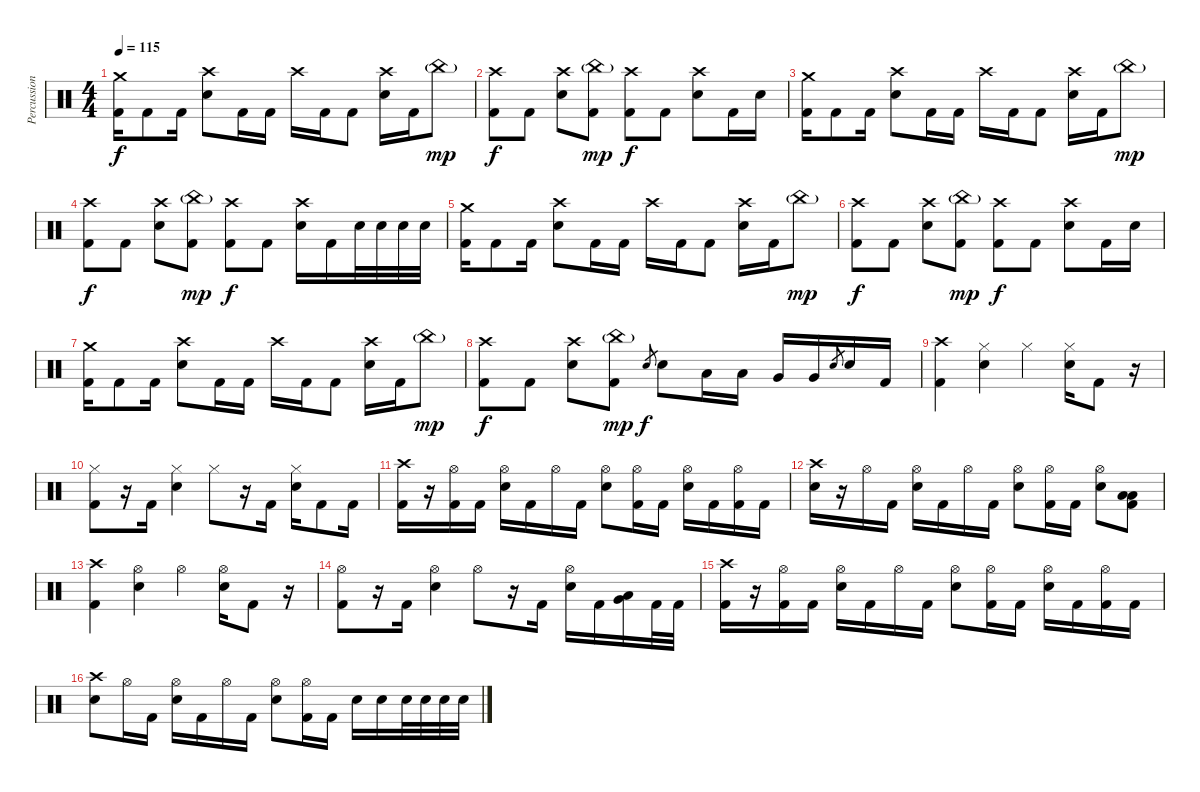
\track ("Percussions" "Percussion") {instrument percussion}
\staff {score}
\articulation defaults
\ts (4 4)
\tempo 115
\clef neutral
\ks c
("Crash medium (hit)" "Kick (hit) 2").16{dy f} "Kick (hit) 2".8 "Kick (hit) 2".16 ("Crash high (hit)" "Electric Snare (hit)").8 "Kick (hit) 2".16 "Kick (hit) 2".16 "Crash high (hit)".16 "Kick (hit) 2".16 "Kick (hit) 2".8 ("Crash high (hit)" "Electric Snare (hit)").16 "Kick (hit) 2".16 "China (hit)"{g}.8{dy mp} |
("Crash high (hit)" "Kick (hit) 2").8{dy f} "Kick (hit) 2".8 ("Crash high (hit)" "Electric Snare (hit)").8 ("China (hit)"{g} "Kick (hit) 2").8{dy mp} ("Crash high (hit)" "Kick (hit) 2").8{dy f} "Kick (hit) 2".8 ("Crash high (hit)" "Electric Snare (hit)").8 "Kick (hit) 2".16 "Electric Snare (hit)".16 |
("Crash medium (hit)" "Kick (hit) 2").16 "Kick (hit) 2".8 "Kick (hit) 2".16 ("Crash high (hit)" "Electric Snare (hit)").8 "Kick (hit) 2".16 "Kick (hit) 2".16 "Crash high (hit)".16 "Kick (hit) 2".16 "Kick (hit) 2".8 ("Crash high (hit)" "Electric Snare (hit)").16 "Kick (hit) 2".16 "China (hit)"{g}.8{dy mp} |
("Crash high (hit)" "Kick (hit) 2").8{dy f} "Kick (hit) 2".8 ("Crash high (hit)" "Electric Snare (hit)").8 ("China (hit)"{g} "Kick (hit) 2").8{dy mp} ("Crash high (hit)" "Kick (hit) 2").8{dy f} "Kick (hit) 2".8 ("Crash high (hit)" "Electric Snare (hit)").16 "Kick (hit) 2".16 "Electric Snare (hit)".32 "Electric Snare (hit)".32 "Electric Snare (hit)".32 "Electric Snare (hit)".32 |
("Crash medium (hit)" "Kick (hit) 2").16 "Kick (hit) 2".8 "Kick (hit) 2".16 ("Crash high (hit)" "Electric Snare (hit)").8 "Kick (hit) 2".16 "Kick (hit) 2".16 "Crash high (hit)".16 "Kick (hit) 2".16 "Kick (hit) 2".8 ("Crash high (hit)" "Electric Snare (hit)").16 "Kick (hit) 2".16 "China (hit)"{g}.8{dy mp} |
("Crash high (hit)" "Kick (hit) 2").8{dy f} "Kick (hit) 2".8 ("Crash high (hit)" "Electric Snare (hit)").8 ("China (hit)"{g} "Kick (hit) 2").8{dy mp} ("Crash high (hit)" "Kick (hit) 2").8{dy f} "Kick (hit) 2".8 ("Crash high (hit)" "Electric Snare (hit)").8 "Kick (hit) 2".16 "Electric Snare (hit)".16 |
("Crash medium (hit)" "Kick (hit) 2").16 "Kick (hit) 2".8 "Kick (hit) 2".16 ("Crash high (hit)" "Electric Snare (hit)").8 "Kick (hit) 2".16 "Kick (hit) 2".16 "Crash high (hit)".16 "Kick (hit) 2".16 "Kick (hit) 2".8 ("Crash high (hit)" "Electric Snare (hit)").16 "Kick (hit) 2".16 "China (hit)"{g}.8{dy mp} |
("Crash high (hit)" "Kick (hit) 2").8{dy f} "Kick (hit) 2".8 ("Crash high (hit)" "Electric Snare (hit)").8 ("China (hit)"{g} "Kick (hit) 2").8{dy mp} "Electric Snare (hit)".8{gr dy f} "Electric Snare (hit)".8 "Low Tom (hit)".16 "Low Tom (hit)".16 "Very Low Tom (hit)".16 "Very Low Tom (hit)".16 "Electric Snare (hit)".8{gr} "Electric Snare (hit)".16 "Kick (hit) 2".16 |
("Crash high (hit)" "Kick (hit) 2").4 ("Hi-Hat (closed)" "Electric Snare (hit)").4 "Hi-Hat (closed)".4 ("Hi-Hat (closed)" "Electric Snare (hit)").16 "Kick (hit) 2".8 r.16 |
("Hi-Hat (closed)" "Kick (hit) 2").8 r.16 "Kick (hit) 2".16 ("Hi-Hat (closed)" "Electric Snare (hit)").4 "Hi-Hat (closed)".8 r.16 "Kick (hit) 2".16 ("Hi-Hat (closed)" "Electric Snare (hit)").16 "Kick (hit) 2".8 "Kick (hit) 2".16 |
("Crash high (hit)" "Kick (hit) 2").16 r.16 ("Hi-Hat (open)" "Kick (hit) 2").16 "Kick (hit) 2".16 ("Hi-Hat (open)" "Electric Snare (hit)").16 "Kick (hit) 2".16 "Hi-Hat (open)".16 "Kick (hit) 2".16 ("Hi-Hat (open)" "Electric Snare (hit)").8 ("Hi-Hat (open)" "Kick (hit) 2").16 "Kick (hit) 2".16 ("Hi-Hat (open)" "Electric Snare (hit)").16 "Kick (hit) 2".16 ("Hi-Hat (open)" "Kick (hit) 2").16 "Kick (hit) 2".16 |
("Crash high (hit)" "Electric Snare (hit)").16 r.16 "Hi-Hat (open)".16 "Kick (hit) 2".16 ("Hi-Hat (open)" "Electric Snare (hit)").16 "Kick (hit) 2".16 "Hi-Hat (open)".16 "Kick (hit) 2".16 ("Hi-Hat (open)" "Electric Snare (hit)").8 ("Hi-Hat (open)" "Kick (hit) 2").16 "Kick (hit) 2".16 ("Hi-Hat (open)" "Electric Snare (hit)").8 ("Low Tom (hit)" "Low Floor Tom (hit)" "Kick (hit) 2").8 |
("Crash high (hit)" "Kick (hit) 2").4 ("Hi-Hat (open)" "Electric Snare (hit)").4 "Hi-Hat (open)".4 ("Hi-Hat (open)" "Electric Snare (hit)").16 "Kick (hit) 2".8 r.16 |
("Hi-Hat (open)" "Kick (hit) 2").8 r.16 "Kick (hit) 2".16 ("Hi-Hat (open)" "Electric Snare (hit)").4 "Hi-Hat (open)".8 r.16 "Kick (hit) 2".16 ("Hi-Hat (open)" "Electric Snare (hit)").16 "Kick (hit) 2".16 ("Low Tom (hit)" "Very Low Tom (hit)").16 "Kick (hit) 2".32 "Kick (hit) 2".32 |
("Crash high (hit)" "Kick (hit) 2").16 r.16 ("Hi-Hat (open)" "Kick (hit) 2").16 "Kick (hit) 2".16 ("Hi-Hat (open)" "Electric Snare (hit)").16 "Kick (hit) 2".16 "Hi-Hat (open)".16 "Kick (hit) 2".16 ("Hi-Hat (open)" "Electric Snare (hit)").8 ("Hi-Hat (open)" "Kick (hit) 2").16 "Kick (hit) 2".16 ("Hi-Hat (open)" "Electric Snare (hit)").16 "Kick (hit) 2".16 ("Hi-Hat (open)" "Kick (hit) 2").16 "Kick (hit) 2".16 |
("Crash high (hit)" "Electric Snare (hit)").8 "Hi-Hat (open)".16 "Kick (hit) 2".16 ("Hi-Hat (open)" "Electric Snare (hit)").16 "Kick (hit) 2".16 "Hi-Hat (open)".16 "Kick (hit) 2".16 ("Hi-Hat (open)" "Electric Snare (hit)").8 ("Hi-Hat (open)" "Kick (hit) 2").16 "Kick (hit) 2".16 "Electric Snare (hit)".16 "Electric Snare (hit)".16 "Electric Snare (hit)".32 "Electric Snare (hit)".32 "Electric Snare (hit)".32 "Electric Snare (hit)".32
